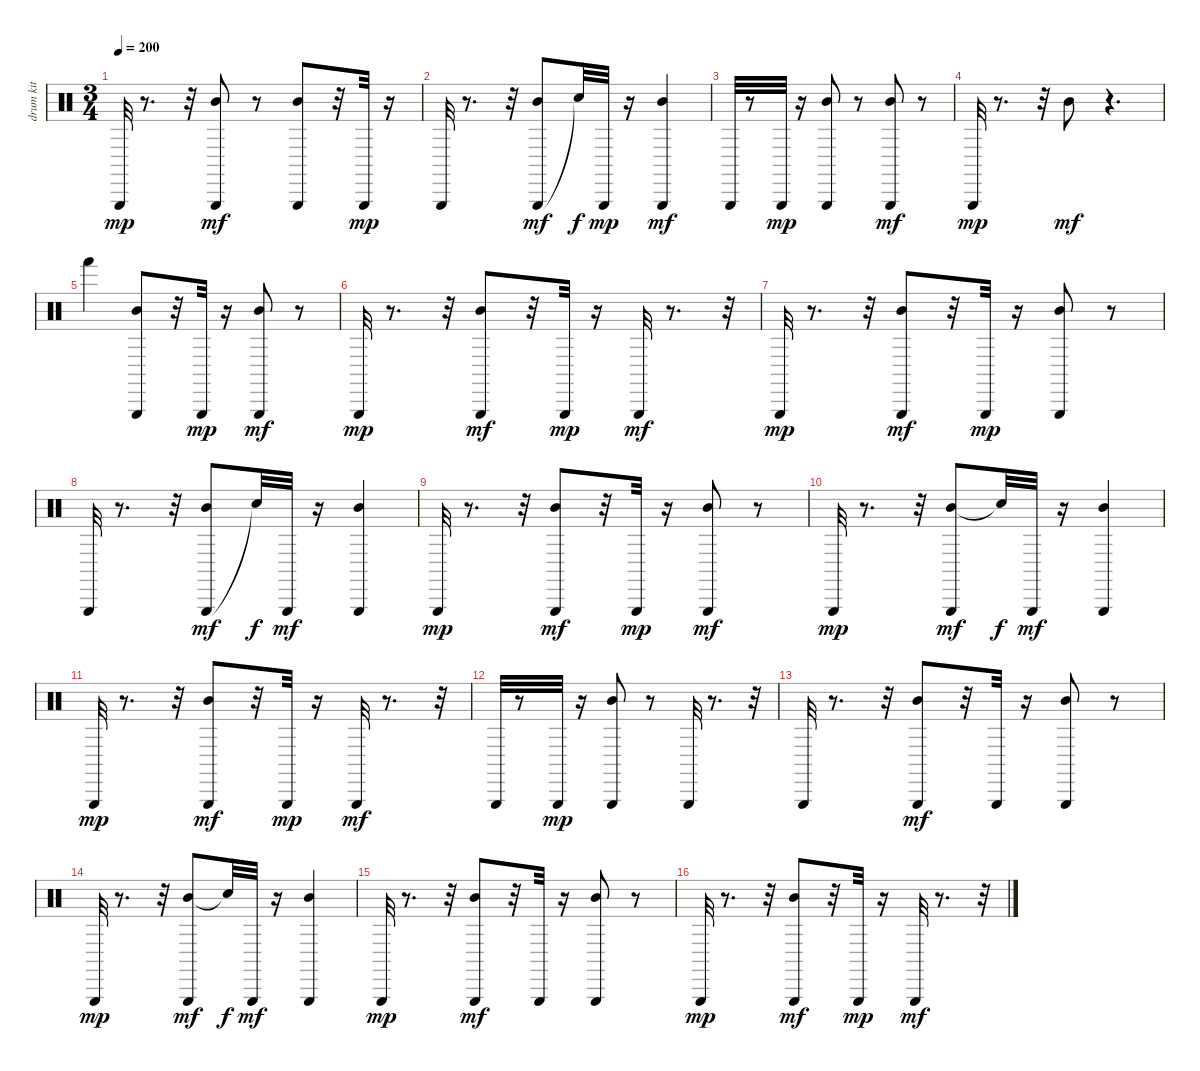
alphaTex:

\track (" drum kit (hi-hat/cymbals)" " drum kit ") {instrument percussion}
\staff {score}
\articulation defaults
\ts (3 4)
\tempo 200
\clef neutral
\ks c "Triangle (hit)".32{dy mp}
r.8{d} r.32 ("Mid Tom (hit)" "Triangle (hit)").8{dy mf} r.8 ("Mid Tom (hit)" "Triangle (hit)").8 r.32 "Triangle (hit)".32{dy mp} r.16 |
"Triangle (hit)".32 r.8{d} r.32 ("Triangle (hit)" "Mid Tom (hit)").8{dy mf} "Snare (hit)"{t}.32{dy f} "Triangle (hit)".32{dy mp} r.16 ("Mid Tom (hit)" "Triangle (hit)").4{dy mf} |
"Triangle (hit)".32 r.8 "Triangle (hit)".32{dy mp} r.16 ("Mid Tom (hit)" "Triangle (hit)").8 r.8 ("Mid Tom (hit)" "Triangle (hit)").8{dy mf} r.8 |
"Triangle (hit)".32{dy mp} r.8{d} r.32 "Mid Tom (hit)".8{dy mf} r.4{d} |
"Hand (hit)".4 ("Mid Tom (hit)" "Triangle (hit)").8 r.32 "Triangle (hit)".32{dy mp} r.16 ("Mid Tom (hit)" "Triangle (hit)").8{dy mf} r.8 |
"Triangle (hit)".32{dy mp} r.8{d} r.32 ("Mid Tom (hit)" "Triangle (hit)").8{dy mf} r.32 "Triangle (hit)".32{dy mp} r.16 "Triangle (hit)".32{dy mf} r.8{d} r.32 |
"Triangle (hit)".32{dy mp} r.8{d} r.32 ("Mid Tom (hit)" "Triangle (hit)").8{dy mf} r.32 "Triangle (hit)".32{dy mp} r.16 ("Mid Tom (hit)" "Triangle (hit)").8 r.8 |
"Triangle (hit)".32 r.8{d} r.32 ("Triangle (hit)" "Mid Tom (hit)").8{dy mf} "Snare (hit)"{t}.32{dy f} "Triangle (hit)".32{dy mf} r.16 ("Triangle (hit)" "Mid Tom (hit)").4 |
"Triangle (hit)".32{dy mp} r.8{d} r.32 ("Mid Tom (hit)" "Triangle (hit)").8{dy mf} r.32 "Triangle (hit)".32{dy mp} r.16 ("Mid Tom (hit)" "Triangle (hit)").8{dy mf} r.8 |
"Triangle (hit)".32{dy mp} r.8{d} r.32 ("Mid Tom (hit)" "Triangle (hit)").8{dy mf} "Snare (hit)"{t}.32{dy f} "Triangle (hit)".32{dy mf} r.16 ("Mid Tom (hit)" "Triangle (hit)").4 |
"Triangle (hit)".32{dy mp} r.8{d} r.32 ("Mid Tom (hit)" "Triangle (hit)").8{dy mf} r.32 "Triangle (hit)".32{dy mp} r.16 "Triangle (hit)".32{dy mf} r.8{d} r.32 |
"Triangle (hit)".32 r.8 "Triangle (hit)".32{dy mp} r.16 ("Mid Tom (hit)" "Triangle (hit)").8 r.8 "Triangle (hit)".32 r.8{d} r.32 |
"Triangle (hit)".32 r.8{d} r.32 ("Triangle (hit)" "Mid Tom (hit)").8{dy mf} r.32 "Triangle (hit)".32 r.16 ("Triangle (hit)" "Mid Tom (hit)").8 r.8 |
"Triangle (hit)".32{dy mp} r.8{d} r.32 ("Mid Tom (hit)" "Triangle (hit)").8{dy mf} "Snare (hit)"{t}.32{dy f} "Triangle (hit)".32{dy mf} r.16 ("Mid Tom (hit)" "Triangle (hit)").4 |
"Triangle (hit)".32{dy mp} r.8{d} r.32 ("Mid Tom (hit)" "Triangle (hit)").8{dy mf} r.32 "Triangle (hit)".32 r.16 ("Mid Tom (hit)" "Triangle (hit)").8 r.8 |
"Triangle (hit)".32{dy mp} r.8{d} r.32 ("Mid Tom (hit)" "Triangle (hit)").8{dy mf} r.32 "Triangle (hit)".32{dy mp} r.16 "Triangle (hit)".32{dy mf} r.8{d} r.32
